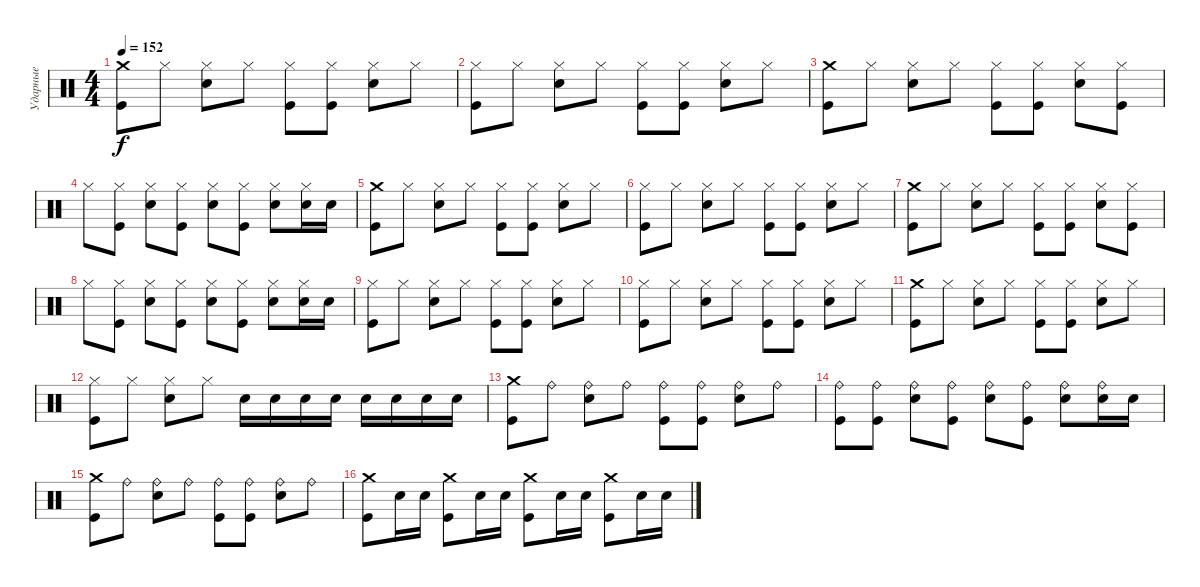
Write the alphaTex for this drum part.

\track ("Ударные" "Ударные") {instrument percussion}
\staff {score}
\articulation defaults
\ts (4 4)
\tempo 152
\clef neutral
\ks c
("Crash medium (hit)" "Kick (hit)").8{dy f} "Hi-Hat (closed)".8 ("Hi-Hat (closed)" "Electric Snare (hit)").8 "Hi-Hat (closed)".8 ("Hi-Hat (closed)" "Kick (hit)").8 ("Hi-Hat (closed)" "Kick (hit)").8 ("Hi-Hat (closed)" "Electric Snare (hit)").8 "Hi-Hat (closed)".8 |
("Hi-Hat (closed)" "Kick (hit)").8 "Hi-Hat (closed)".8 ("Hi-Hat (closed)" "Electric Snare (hit)").8 "Hi-Hat (closed)".8 ("Hi-Hat (closed)" "Kick (hit)").8 ("Hi-Hat (closed)" "Kick (hit)").8 ("Hi-Hat (closed)" "Electric Snare (hit)").8 "Hi-Hat (closed)".8 |
("Crash medium (hit)" "Kick (hit)").8 "Hi-Hat (closed)".8 ("Hi-Hat (closed)" "Electric Snare (hit)").8 "Hi-Hat (closed)".8 ("Hi-Hat (closed)" "Kick (hit)").8 ("Hi-Hat (closed)" "Kick (hit)").8 ("Hi-Hat (closed)" "Electric Snare (hit)").8 ("Hi-Hat (closed)" "Kick (hit)").8 |
"Hi-Hat (closed)".8 ("Hi-Hat (closed)" "Kick (hit)").8 ("Hi-Hat (closed)" "Electric Snare (hit)").8 ("Hi-Hat (closed)" "Kick (hit)").8 ("Hi-Hat (closed)" "Electric Snare (hit)").8 ("Hi-Hat (closed)" "Kick (hit)").8 ("Hi-Hat (closed)" "Electric Snare (hit)").8 ("Hi-Hat (closed)" "Electric Snare (hit)").16 "Electric Snare (hit)".16 |
("Crash medium (hit)" "Kick (hit)").8 "Hi-Hat (closed)".8 ("Hi-Hat (closed)" "Electric Snare (hit)").8 "Hi-Hat (closed)".8 ("Hi-Hat (closed)" "Kick (hit)").8 ("Hi-Hat (closed)" "Kick (hit)").8 ("Hi-Hat (closed)" "Electric Snare (hit)").8 "Hi-Hat (closed)".8 |
("Hi-Hat (closed)" "Kick (hit)").8 "Hi-Hat (closed)".8 ("Hi-Hat (closed)" "Electric Snare (hit)").8 "Hi-Hat (closed)".8 ("Hi-Hat (closed)" "Kick (hit)").8 ("Hi-Hat (closed)" "Kick (hit)").8 ("Hi-Hat (closed)" "Electric Snare (hit)").8 "Hi-Hat (closed)".8 |
("Crash medium (hit)" "Kick (hit)").8 "Hi-Hat (closed)".8 ("Hi-Hat (closed)" "Electric Snare (hit)").8 "Hi-Hat (closed)".8 ("Hi-Hat (closed)" "Kick (hit)").8 ("Hi-Hat (closed)" "Kick (hit)").8 ("Hi-Hat (closed)" "Electric Snare (hit)").8 ("Hi-Hat (closed)" "Kick (hit)").8 |
"Hi-Hat (closed)".8 ("Hi-Hat (closed)" "Kick (hit)").8 ("Hi-Hat (closed)" "Electric Snare (hit)").8 ("Hi-Hat (closed)" "Kick (hit)").8 ("Hi-Hat (closed)" "Electric Snare (hit)").8 ("Hi-Hat (closed)" "Kick (hit)").8 ("Hi-Hat (closed)" "Electric Snare (hit)").8 ("Hi-Hat (closed)" "Electric Snare (hit)").16 "Electric Snare (hit)".16 |
("Hi-Hat (closed)" "Kick (hit)").8 "Hi-Hat (closed)".8 ("Hi-Hat (closed)" "Electric Snare (hit)").8 "Hi-Hat (closed)".8 ("Hi-Hat (closed)" "Kick (hit)").8 ("Hi-Hat (closed)" "Kick (hit)").8 ("Hi-Hat (closed)" "Electric Snare (hit)").8 "Hi-Hat (closed)".8 |
("Hi-Hat (closed)" "Kick (hit)").8 "Hi-Hat (closed)".8 ("Hi-Hat (closed)" "Electric Snare (hit)").8 "Hi-Hat (closed)".8 ("Hi-Hat (closed)" "Kick (hit)").8 ("Hi-Hat (closed)" "Kick (hit)").8 ("Hi-Hat (closed)" "Electric Snare (hit)").8 "Hi-Hat (closed)".8 |
("Crash medium (hit)" "Kick (hit)").8 "Hi-Hat (closed)".8 ("Hi-Hat (closed)" "Electric Snare (hit)").8 "Hi-Hat (closed)".8 ("Hi-Hat (closed)" "Kick (hit)").8 ("Hi-Hat (closed)" "Kick (hit)").8 ("Hi-Hat (closed)" "Electric Snare (hit)").8 "Hi-Hat (closed)".8 |
("Hi-Hat (closed)" "Kick (hit)").8 "Hi-Hat (closed)".8 ("Hi-Hat (closed)" "Electric Snare (hit)").8 "Hi-Hat (closed)".8 "Electric Snare (hit)".16 "Electric Snare (hit)".16 "Electric Snare (hit)".16 "Electric Snare (hit)".16 "Electric Snare (hit)".16 "Electric Snare (hit)".16 "Electric Snare (hit)".16 "Electric Snare (hit)".16 |
("Crash medium (hit)" "Kick (hit)").8 "Ride (bell)".8 ("Ride (bell)" "Electric Snare (hit)").8 "Ride (bell)".8 ("Ride (bell)" "Kick (hit)").8 ("Ride (bell)" "Kick (hit)").8 ("Ride (bell)" "Electric Snare (hit)").8 "Ride (bell)".8 |
("Ride (bell)" "Kick (hit)").8 ("Ride (bell)" "Kick (hit)").8 ("Ride (bell)" "Electric Snare (hit)").8 ("Ride (bell)" "Kick (hit)").8 ("Ride (bell)" "Electric Snare (hit)").8 ("Ride (bell)" "Kick (hit)").8 ("Ride (bell)" "Electric Snare (hit)").8 ("Ride (bell)" "Electric Snare (hit)").16 "Electric Snare (hit)".16 |
("Crash medium (hit)" "Kick (hit)").8 "Ride (bell)".8 ("Ride (bell)" "Electric Snare (hit)").8 "Ride (bell)".8 ("Ride (bell)" "Kick (hit)").8 ("Ride (bell)" "Kick (hit)").8 ("Ride (bell)" "Electric Snare (hit)").8 "Ride (bell)".8 |
("Crash medium (hit)" "Kick (hit)").8 "Electric Snare (hit)".16 "Electric Snare (hit)".16 ("Crash medium (hit)" "Kick (hit)").8 "Electric Snare (hit)".16 "Electric Snare (hit)".16 ("Crash medium (hit)" "Kick (hit)").8 "Electric Snare (hit)".16 "Electric Snare (hit)".16 ("Crash medium (hit)" "Kick (hit)").8 "Electric Snare (hit)".16 "Electric Snare (hit)".16
